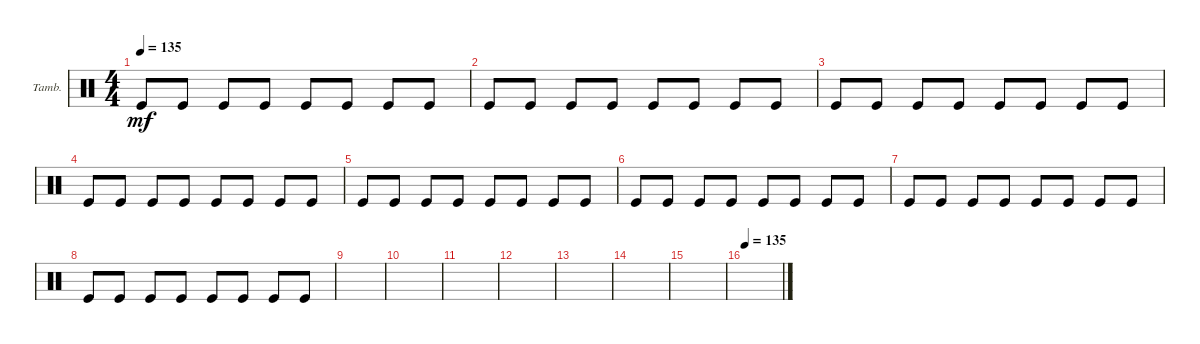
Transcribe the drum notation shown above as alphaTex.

\defaultSystemsLayout 4
\bracketExtendMode groupsimilarinstruments
\firstSystemTrackNameOrientation horizontal
\otherSystemsTrackNameOrientation horizontal
\track ("Tambourine" "Tamb.") {instrument percussion}
\staff {score}
\articulation defaults
\ts (4 4)
\tempo 135
\clef neutral
\ks c "Kick (hit)".8{dy mf} "Kick (hit)".8 "Kick (hit)".8 "Kick (hit)".8 "Kick (hit)".8 "Kick (hit)".8 "Kick (hit)".8 "Kick (hit)".8
|
"Kick (hit)".8 "Kick (hit)".8 "Kick (hit)".8 "Kick (hit)".8 "Kick (hit)".8 "Kick (hit)".8 "Kick (hit)".8 "Kick (hit)".8 |
"Kick (hit)".8 "Kick (hit)".8 "Kick (hit)".8 "Kick (hit)".8 "Kick (hit)".8 "Kick (hit)".8 "Kick (hit)".8 "Kick (hit)".8 |
"Kick (hit)".8 "Kick (hit)".8 "Kick (hit)".8 "Kick (hit)".8 "Kick (hit)".8 "Kick (hit)".8 "Kick (hit)".8 "Kick (hit)".8 |
"Kick (hit)".8 "Kick (hit)".8 "Kick (hit)".8 "Kick (hit)".8 "Kick (hit)".8 "Kick (hit)".8 "Kick (hit)".8 "Kick (hit)".8 |
"Kick (hit)".8 "Kick (hit)".8 "Kick (hit)".8 "Kick (hit)".8 "Kick (hit)".8 "Kick (hit)".8 "Kick (hit)".8 "Kick (hit)".8 |
"Kick (hit)".8 "Kick (hit)".8 "Kick (hit)".8 "Kick (hit)".8 "Kick (hit)".8 "Kick (hit)".8 "Kick (hit)".8 "Kick (hit)".8 |
"Kick (hit)".8 "Kick (hit)".8 "Kick (hit)".8 "Kick (hit)".8 "Kick (hit)".8 "Kick (hit)".8 "Kick (hit)".8 "Kick (hit)".8 |
|
|
|
|
|
|
|
\tempo 135
